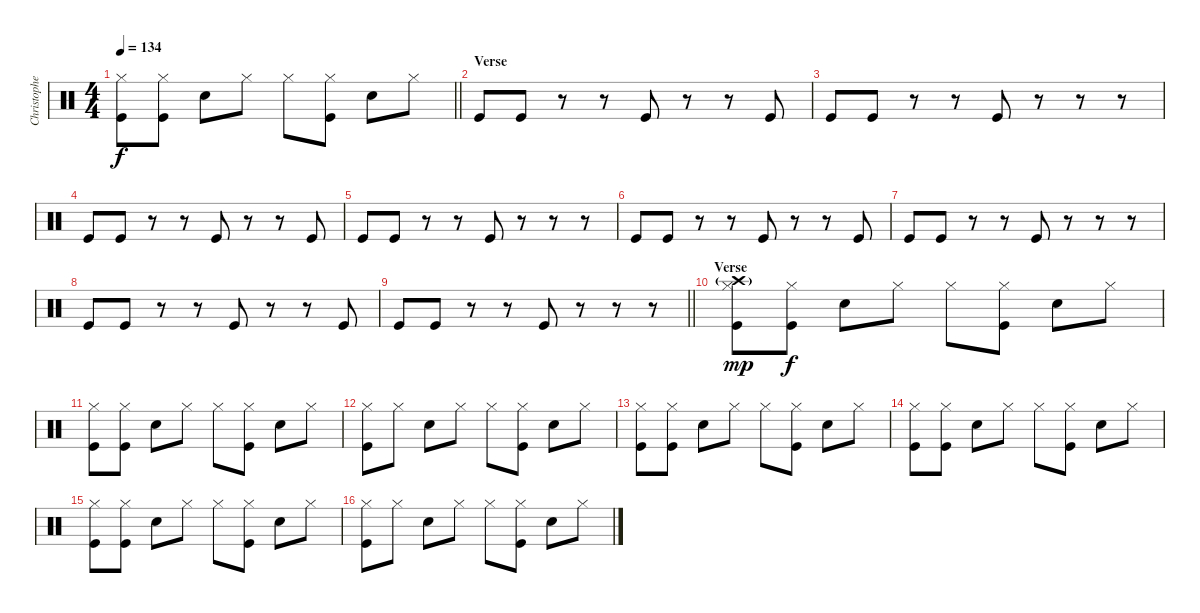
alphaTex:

\track ("Christopher - Drums" "Christophe") {instrument percussion}
\staff {score}
\articulation defaults
\ts (4 4)
\tempo 134
\clef neutral
\barLineRight lightlight
\ks c
("Hi-Hat (closed)" "Kick (hit)").8{dy f} ("Hi-Hat (closed)" "Kick (hit)").8 "Snare (hit) 2".8 "Hi-Hat (closed)".8 "Hi-Hat (closed)".8 ("Hi-Hat (closed)" "Kick (hit)").8 "Snare (hit) 2".8 "Hi-Hat (closed)".8 |
\section ("" "Verse")
"Kick (hit)".8 "Kick (hit)".8 r.8 r.8 "Kick (hit)".8 r.8 r.8 "Kick (hit)".8 |
"Kick (hit)".8 "Kick (hit)".8 r.8 r.8 "Kick (hit)".8 r.8 r.8 r.8 |
"Kick (hit)".8 "Kick (hit)".8 r.8 r.8 "Kick (hit)".8 r.8 r.8 "Kick (hit)".8 |
"Kick (hit)".8 "Kick (hit)".8 r.8 r.8 "Kick (hit)".8 r.8 r.8 r.8 |
"Kick (hit)".8 "Kick (hit)".8 r.8 r.8 "Kick (hit)".8 r.8 r.8 "Kick (hit)".8 |
"Kick (hit)".8 "Kick (hit)".8 r.8 r.8 "Kick (hit)".8 r.8 r.8 r.8 |
"Kick (hit)".8 "Kick (hit)".8 r.8 r.8 "Kick (hit)".8 r.8 r.8 "Kick (hit)".8 |
\barLineRight lightlight "Kick (hit)".8 "Kick (hit)".8
r.8 r.8 "Kick (hit)".8 r.8 r.8 r.8 |
\section ("" "Verse")
("Crash high (hit)"{g} "Hi-Hat (closed)" "Kick (hit)").8{dy mp} ("Hi-Hat (closed)" "Kick (hit)").8{dy f} "Snare (hit) 2".8 "Hi-Hat (closed)".8 "Hi-Hat (closed)".8 ("Hi-Hat (closed)" "Kick (hit)").8 "Snare (hit) 2".8 "Hi-Hat (closed)".8 |
("Hi-Hat (closed)" "Kick (hit)").8 ("Hi-Hat (closed)" "Kick (hit)").8 "Snare (hit) 2".8 "Hi-Hat (closed)".8 "Hi-Hat (closed)".8 ("Hi-Hat (closed)" "Kick (hit)").8 "Snare (hit) 2".8 "Hi-Hat (closed)".8 |
("Hi-Hat (closed)" "Kick (hit)").8 "Hi-Hat (closed)".8 "Snare (hit) 2".8 "Hi-Hat (closed)".8 "Hi-Hat (closed)".8 ("Hi-Hat (closed)" "Kick (hit)").8 "Snare (hit) 2".8 "Hi-Hat (closed)".8 |
("Hi-Hat (closed)" "Kick (hit)").8 ("Hi-Hat (closed)" "Kick (hit)").8 "Snare (hit) 2".8 "Hi-Hat (closed)".8 "Hi-Hat (closed)".8 ("Hi-Hat (closed)" "Kick (hit)").8 "Snare (hit) 2".8 "Hi-Hat (closed)".8 |
("Hi-Hat (closed)" "Kick (hit)").8 ("Hi-Hat (closed)" "Kick (hit)").8 "Snare (hit) 2".8 "Hi-Hat (closed)".8 "Hi-Hat (closed)".8 ("Hi-Hat (closed)" "Kick (hit)").8 "Snare (hit) 2".8 "Hi-Hat (closed)".8 |
("Hi-Hat (closed)" "Kick (hit)").8 ("Hi-Hat (closed)" "Kick (hit)").8 "Snare (hit) 2".8 "Hi-Hat (closed)".8 "Hi-Hat (closed)".8 ("Hi-Hat (closed)" "Kick (hit)").8 "Snare (hit) 2".8 "Hi-Hat (closed)".8 |
("Hi-Hat (closed)" "Kick (hit)").8 "Hi-Hat (closed)".8 "Snare (hit) 2".8 "Hi-Hat (closed)".8 "Hi-Hat (closed)".8 ("Hi-Hat (closed)" "Kick (hit)").8 "Snare (hit) 2".8 "Hi-Hat (closed)".8
